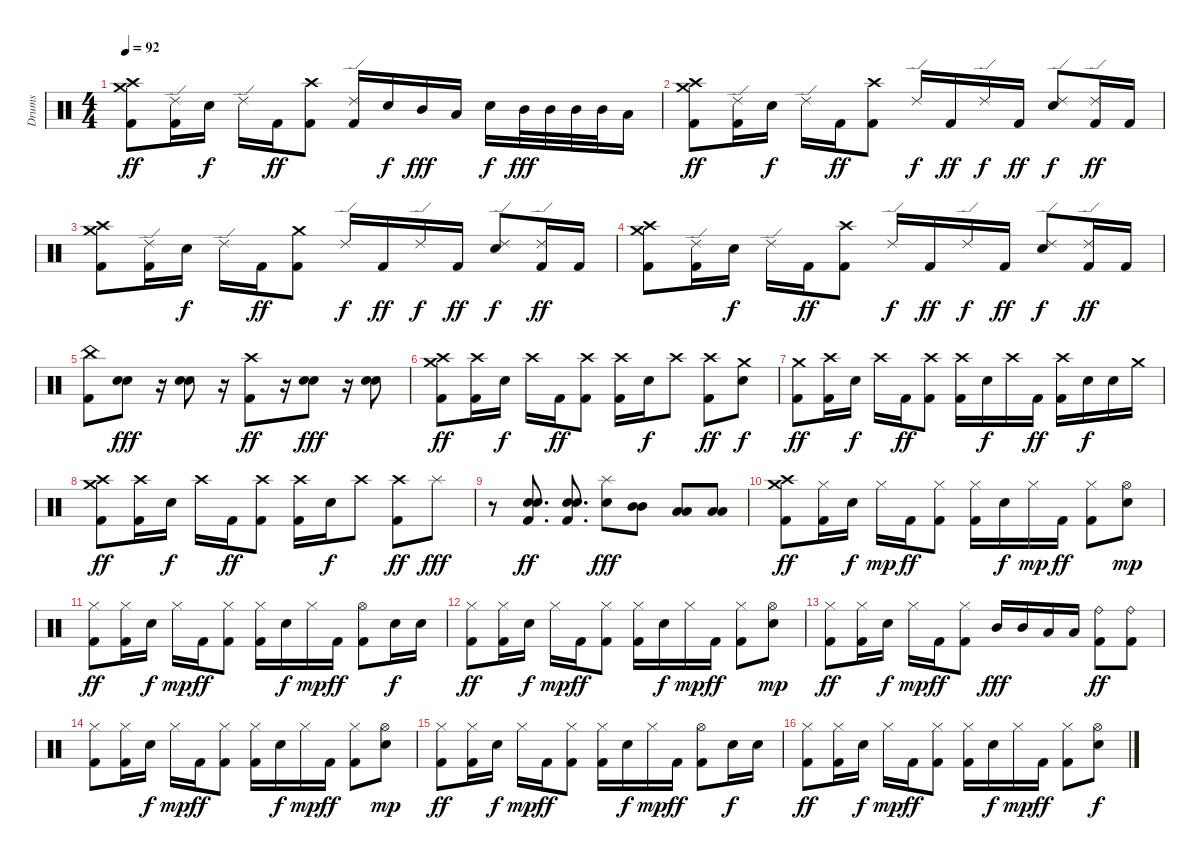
\track ("Drums" "Drums") {instrument percussion}
\staff {score}
\articulation defaults
\ts (4 4)
\tempo 92
\clef neutral
\ks c
("Crash medium (hit)" "Crash high (hit)" "Kick (hit) 2").8{dy ff} ("Ride (edge) 2" "Kick (hit) 2").16 "Electric Snare (hit)".16{dy f} "Ride (edge) 2".16 "Kick (hit) 2".16{dy ff} ("Crash high (hit)" "Kick (hit) 2").8 ("Ride (edge) 2" "Kick (hit) 2").16 "Electric Snare (hit)".16{dy f} "Mid Tom (hit)".16{dy fff} "Low Tom (hit)".16 "Electric Snare (hit)".16{dy f} "Mid Tom (hit)".32{dy fff} "Mid Tom (hit)".32 "Mid Tom (hit)".32 "Mid Tom (hit)".32 "Low Tom (hit)".16 |
("Crash medium (hit)" "Crash high (hit)" "Kick (hit) 2").8{dy ff} ("Ride (edge) 2" "Kick (hit) 2").16 "Electric Snare (hit)".16{dy f} "Ride (edge) 2".16 "Kick (hit) 2".16{dy ff} ("Crash high (hit)" "Kick (hit) 2").8 "Ride (edge) 2".16{dy f} "Kick (hit) 2".16{dy ff} "Ride (edge) 2".16{dy f} "Kick (hit) 2".16{dy ff} ("Ride (edge) 2" "Electric Snare (hit)").8{dy f} ("Ride (edge) 2" "Kick (hit) 2").16{dy ff} "Kick (hit) 2".16 |
("Crash medium (hit)" "Crash high (hit)" "Kick (hit) 2").8 ("Ride (edge) 2" "Kick (hit) 2").16 "Electric Snare (hit)".16{dy f} "Ride (edge) 2".16 "Kick (hit) 2".16{dy ff} ("Crash medium (hit)" "Kick (hit) 2").8 "Ride (edge) 2".16{dy f} "Kick (hit) 2".16{dy ff} "Ride (edge) 2".16{dy f} "Kick (hit) 2".16{dy ff} ("Ride (edge) 2" "Electric Snare (hit)").8{dy f} ("Ride (edge) 2" "Kick (hit) 2").16{dy ff} "Kick (hit) 2".16 |
("Crash medium (hit)" "Crash high (hit)" "Kick (hit) 2").8 ("Ride (edge) 2" "Kick (hit) 2").16 "Electric Snare (hit)".16{dy f} "Ride (edge) 2".16 "Kick (hit) 2".16{dy ff} ("Crash high (hit)" "Kick (hit) 2").8 "Ride (edge) 2".16{dy f} "Kick (hit) 2".16{dy ff} "Ride (edge) 2".16{dy f} "Kick (hit) 2".16{dy ff} ("Ride (edge) 2" "Electric Snare (hit)").8{dy f} ("Ride (edge) 2" "Kick (hit) 2").16{dy ff} "Kick (hit) 2".16 |
("China (hit)" "Kick (hit) 2").8 ("Electric Snare (hit)" "Electric Snare (hit)").8{dy fff} r.16 ("Electric Snare (hit)" "Electric Snare (hit)").8 r.16 ("Crash high (hit)" "Kick (hit) 2").8{dy ff} r.16 ("Electric Snare (hit)" "Electric Snare (hit)").8{dy fff} r.16 ("Electric Snare (hit)" "Electric Snare (hit)").8 |
("Crash medium (hit)" "Crash high (hit)" "Kick (hit) 2").8{dy ff} ("Crash high (hit)" "Kick (hit) 2").16 "Electric Snare (hit)".16{dy f} "Crash high (hit)".16 "Kick (hit) 2".16{dy ff} ("Crash high (hit)" "Kick (hit) 2").8 ("Crash high (hit)" "Kick (hit) 2").16 "Electric Snare (hit)".16{dy f} "Crash high (hit)".8 ("Crash high (hit)" "Kick (hit) 2").8{dy ff} ("Crash medium (hit)" "Electric Snare (hit)").8{dy f} |
("Crash medium (hit)" "Kick (hit) 2").8{dy ff} ("Crash high (hit)" "Kick (hit) 2").16 "Electric Snare (hit)".16{dy f} "Crash high (hit)".16 "Kick (hit) 2".16{dy ff} ("Crash high (hit)" "Kick (hit) 2").8 ("Crash high (hit)" "Kick (hit) 2").16 "Electric Snare (hit)".16{dy f} "Crash high (hit)".16 "Kick (hit) 2".16{dy ff} ("Crash high (hit)" "Kick (hit) 2").16 "Electric Snare (hit)".16{dy f} "Electric Snare (hit)".16 "Crash medium (hit)".16 |
("Crash medium (hit)" "Crash high (hit)" "Kick (hit) 2").8{dy ff} ("Crash high (hit)" "Kick (hit) 2").16 "Electric Snare (hit)".16{dy f} "Crash high (hit)".16 "Kick (hit) 2".16{dy ff} ("Crash high (hit)" "Kick (hit) 2").8 ("Crash high (hit)" "Kick (hit) 2").16 "Electric Snare (hit)".16{dy f} "Crash high (hit)".8 ("Crash high (hit)" "Kick (hit) 2").8{dy ff} "Splash (hit)".8{dy fff} |
r.8 ("Electric Snare (hit)" "Electric Snare (hit)" "Kick (hit) 2").8{d dy ff} ("Electric Snare (hit)" "Electric Snare (hit)" "Kick (hit) 2").8{d} ("Splash (hit)" "Electric Snare (hit)").8{dy fff} ("Mid Tom (hit)" "Mid Tom (hit)").8 ("Low Tom (hit)" "Low Tom (hit)").8 ("Low Floor Tom (hit)" "Low Floor Tom (hit)").8 |
("Crash medium (hit)" "Crash high (hit)" "Kick (hit) 2").8{dy ff} ("Hi-Hat (closed)" "Kick (hit) 2").16 "Electric Snare (hit)".16{dy f} "Hi-Hat (closed)".16{dy mp} "Kick (hit) 2".16{dy ff} ("Hi-Hat (closed)" "Kick (hit) 2").8 ("Hi-Hat (closed)" "Kick (hit) 2").16 "Electric Snare (hit)".16{dy f} "Hi-Hat (closed)".16{dy mp} "Kick (hit) 2".16{dy ff} ("Hi-Hat (closed)" "Kick (hit) 2").8 ("Hi-Hat (open)" "Electric Snare (hit)").8{dy mp} |
("Hi-Hat (closed)" "Kick (hit) 2").8{dy ff} ("Hi-Hat (closed)" "Kick (hit) 2").16 "Electric Snare (hit)".16{dy f} "Hi-Hat (closed)".16{dy mp} "Kick (hit) 2".16{dy ff} ("Hi-Hat (closed)" "Kick (hit) 2").8 ("Hi-Hat (closed)" "Kick (hit) 2").16 "Electric Snare (hit)".16{dy f} "Hi-Hat (closed)".16{dy mp} "Kick (hit) 2".16{dy ff} ("Hi-Hat (open)" "Kick (hit) 2").8 "Electric Snare (hit)".16{dy f} "Electric Snare (hit)".16 |
("Hi-Hat (closed)" "Kick (hit) 2").8{dy ff} ("Hi-Hat (closed)" "Kick (hit) 2").16 "Electric Snare (hit)".16{dy f} "Hi-Hat (closed)".16{dy mp} "Kick (hit) 2".16{dy ff} ("Hi-Hat (closed)" "Kick (hit) 2").8 ("Hi-Hat (closed)" "Kick (hit) 2").16 "Electric Snare (hit)".16{dy f} "Hi-Hat (closed)".16{dy mp} "Kick (hit) 2".16{dy ff} ("Hi-Hat (closed)" "Kick (hit) 2").8 ("Hi-Hat (open)" "Electric Snare (hit)").8{dy mp} |
("Hi-Hat (closed)" "Kick (hit) 2").8{dy ff} ("Hi-Hat (closed)" "Kick (hit) 2").16 "Electric Snare (hit)".16{dy f} "Hi-Hat (closed)".16{dy mp} "Kick (hit) 2".16{dy ff} ("Hi-Hat (closed)" "Kick (hit) 2").8 "Mid Tom (hit)".16{dy fff} "Mid Tom (hit)".16 "Low Tom (hit)".16 "Low Tom (hit)".16 ("Ride (bell)" "Kick (hit) 2").8{dy ff} ("Ride (bell)" "Kick (hit) 2").8 |
("Hi-Hat (closed)" "Kick (hit) 2").8 ("Hi-Hat (closed)" "Kick (hit) 2").16 "Electric Snare (hit)".16{dy f} "Hi-Hat (closed)".16{dy mp} "Kick (hit) 2".16{dy ff} ("Hi-Hat (closed)" "Kick (hit) 2").8 ("Hi-Hat (closed)" "Kick (hit) 2").16 "Electric Snare (hit)".16{dy f} "Hi-Hat (closed)".16{dy mp} "Kick (hit) 2".16{dy ff} ("Hi-Hat (closed)" "Kick (hit) 2").8 ("Hi-Hat (open)" "Electric Snare (hit)").8{dy mp} |
("Hi-Hat (closed)" "Kick (hit) 2").8{dy ff} ("Hi-Hat (closed)" "Kick (hit) 2").16 "Electric Snare (hit)".16{dy f} "Hi-Hat (closed)".16{dy mp} "Kick (hit) 2".16{dy ff} ("Hi-Hat (closed)" "Kick (hit) 2").8 ("Hi-Hat (closed)" "Kick (hit) 2").16 "Electric Snare (hit)".16{dy f} "Hi-Hat (closed)".16{dy mp} "Kick (hit) 2".16{dy ff} ("Hi-Hat (open)" "Kick (hit) 2").8 "Electric Snare (hit)".16{dy f} "Electric Snare (hit)".16 |
("Hi-Hat (closed)" "Kick (hit) 2").8{dy ff} ("Hi-Hat (closed)" "Kick (hit) 2").16 "Electric Snare (hit)".16{dy f} "Hi-Hat (closed)".16{dy mp} "Kick (hit) 2".16{dy ff} ("Hi-Hat (closed)" "Kick (hit) 2").8 ("Hi-Hat (closed)" "Kick (hit) 2").16 "Electric Snare (hit)".16{dy f} "Hi-Hat (closed)".16{dy mp} "Kick (hit) 2".16{dy ff} ("Hi-Hat (closed)" "Kick (hit) 2").8 ("Hi-Hat (open)" "Electric Snare (hit)").8{dy f}
